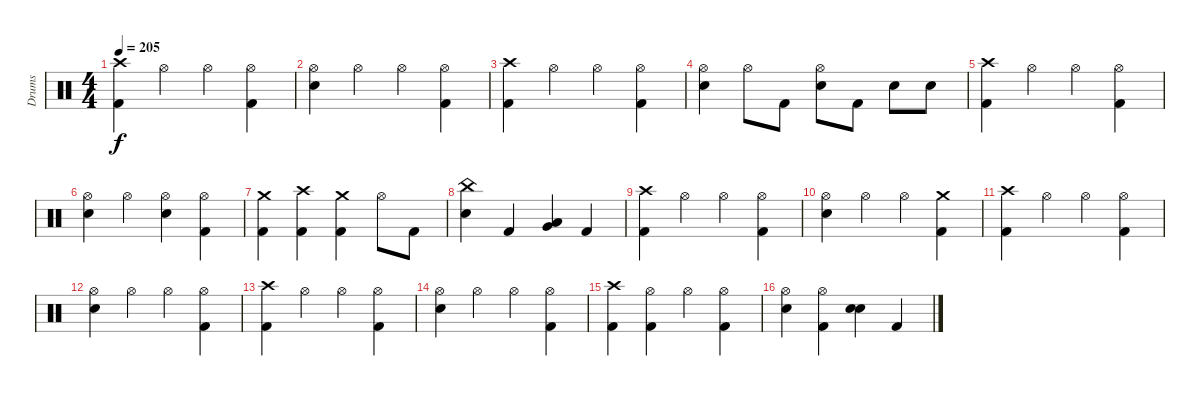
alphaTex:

\track ("Drums" "Drums") {instrument percussion}
\staff {score}
\articulation defaults
\ts (4 4)
\tempo 205
\clef neutral
\ks c
("Crash high (hit)" "Kick (hit) 2").4{dy f} "Hi-Hat (open)".4 "Hi-Hat (open)".4 ("Hi-Hat (open)" "Kick (hit) 2").4 |
("Hi-Hat (open)" "Snare (hit) 2").4 "Hi-Hat (open)".4 "Hi-Hat (open)".4 ("Hi-Hat (open)" "Kick (hit) 2").4 |
("Crash high (hit)" "Kick (hit) 2").4 "Hi-Hat (open)".4 "Hi-Hat (open)".4 ("Hi-Hat (open)" "Kick (hit) 2").4 |
("Hi-Hat (open)" "Snare (hit) 2").4 "Hi-Hat (open)".8 "Kick (hit) 2".8 ("Hi-Hat (open)" "Snare (hit) 2").8 "Kick (hit) 2".8 "Snare (hit) 2".8 "Snare (hit) 2".8 |
("Crash high (hit)" "Kick (hit) 2").4 "Hi-Hat (open)".4 "Hi-Hat (open)".4 ("Hi-Hat (open)" "Kick (hit) 2").4 |
("Hi-Hat (open)" "Snare (hit) 2").4 "Hi-Hat (open)".4 ("Hi-Hat (open)" "Snare (hit) 2").4 ("Hi-Hat (open)" "Kick (hit) 2").4 |
("Crash medium (hit)" "Kick (hit) 2").4 ("Crash high (hit)" "Kick (hit) 2").4 ("Crash medium (hit)" "Kick (hit) 2").4 "Hi-Hat (open)".8 "Kick (hit) 2".8 |
("China (hit)" "Snare (hit) 2").4 "Kick (hit) 2".4 ("Very Low Tom (hit)" "Low Floor Tom (hit)").4 "Kick (hit) 2".4 |
("Crash high (hit)" "Kick (hit) 2").4 "Hi-Hat (open)".4 "Hi-Hat (open)".4 ("Hi-Hat (open)" "Kick (hit) 2").4 |
("Hi-Hat (open)" "Snare (hit) 2").4 "Hi-Hat (open)".4 "Hi-Hat (open)".4 ("Crash medium (hit)" "Kick (hit) 2").4 |
("Crash high (hit)" "Kick (hit) 2").4 "Hi-Hat (open)".4 "Hi-Hat (open)".4 ("Hi-Hat (open)" "Kick (hit) 2").4 |
("Hi-Hat (open)" "Snare (hit) 2").4 "Hi-Hat (open)".4 "Hi-Hat (open)".4 ("Hi-Hat (open)" "Kick (hit) 2").4 |
("Crash high (hit)" "Kick (hit) 2").4 "Hi-Hat (open)".4 "Hi-Hat (open)".4 ("Hi-Hat (open)" "Kick (hit) 2").4 |
("Hi-Hat (open)" "Snare (hit) 2").4 "Hi-Hat (open)".4 "Hi-Hat (open)".4 ("Hi-Hat (open)" "Kick (hit) 2").4 |
("Crash high (hit)" "Kick (hit) 2").4 ("Hi-Hat (open)" "Kick (hit) 2").4 "Hi-Hat (open)".4 ("Hi-Hat (open)" "Kick (hit) 2").4 |
("Hi-Hat (open)" "Snare (hit) 2").4 ("Hi-Hat (open)" "Kick (hit) 2").4 ("Snare (hit) 2" "Snare (hit) 2").4 "Kick (hit) 2".4
